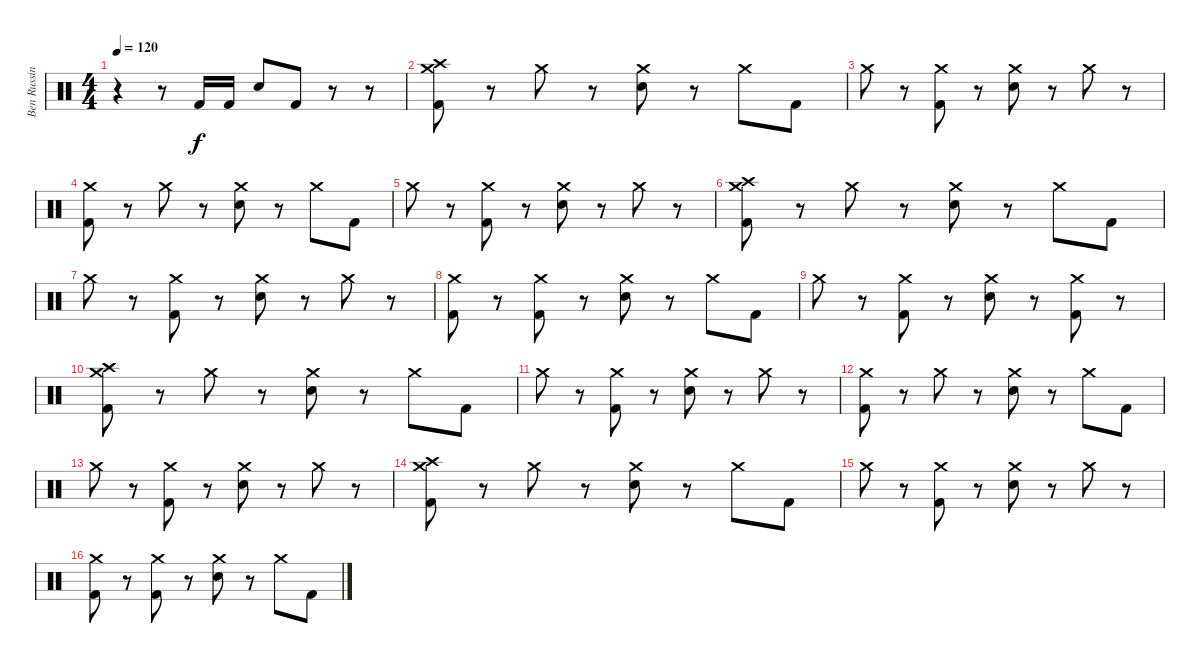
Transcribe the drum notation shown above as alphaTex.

\track ("Ben Russin" "Ben Russin") {instrument percussion}
\staff {score}
\articulation defaults
\ts (4 4)
\tempo 120
\clef neutral
\ks c
r.4{dy f} r.8 "Kick (hit) 2".16 "Kick (hit) 2".16 "Snare (hit) 2".8 "Kick (hit) 2".8 r.8 r.8 |
("Kick (hit) 2" "Crash high (hit)" "Crash medium (hit)").8 r.8 "Crash medium (hit)".8 r.8 ("Snare (hit) 2" "Crash medium (hit)").8 r.8 "Crash medium (hit)".8 "Kick (hit) 2".8 |
"Crash medium (hit)".8 r.8 ("Kick (hit) 2" "Crash medium (hit)").8 r.8 ("Snare (hit) 2" "Crash medium (hit)").8 r.8 "Crash medium (hit)".8 r.8 |
("Kick (hit) 2" "Crash medium (hit)").8 r.8 "Crash medium (hit)".8 r.8 ("Snare (hit) 2" "Crash medium (hit)").8 r.8 "Crash medium (hit)".8 "Kick (hit) 2".8 |
"Crash medium (hit)".8 r.8 ("Kick (hit) 2" "Crash medium (hit)").8 r.8 ("Snare (hit) 2" "Crash medium (hit)").8 r.8 "Crash medium (hit)".8 r.8 |
("Kick (hit) 2" "Crash high (hit)" "Crash medium (hit)").8 r.8 "Crash medium (hit)".8 r.8 ("Snare (hit) 2" "Crash medium (hit)").8 r.8 "Crash medium (hit)".8 "Kick (hit) 2".8 |
"Crash medium (hit)".8 r.8 ("Kick (hit) 2" "Crash medium (hit)").8 r.8 ("Snare (hit) 2" "Crash medium (hit)").8 r.8 "Crash medium (hit)".8 r.8 |
("Kick (hit) 2" "Crash medium (hit)").8 r.8 ("Kick (hit) 2" "Crash medium (hit)").8 r.8 ("Snare (hit) 2" "Crash medium (hit)").8 r.8 "Crash medium (hit)".8 "Kick (hit) 2".8 |
"Crash medium (hit)".8 r.8 ("Kick (hit) 2" "Crash medium (hit)").8 r.8 ("Snare (hit) 2" "Crash medium (hit)").8 r.8 ("Kick (hit) 2" "Crash medium (hit)").8 r.8 |
("Kick (hit) 2" "Crash high (hit)" "Crash medium (hit)").8 r.8 "Crash medium (hit)".8 r.8 ("Snare (hit) 2" "Crash medium (hit)").8 r.8 "Crash medium (hit)".8 "Kick (hit) 2".8 |
"Crash medium (hit)".8 r.8 ("Kick (hit) 2" "Crash medium (hit)").8 r.8 ("Snare (hit) 2" "Crash medium (hit)").8 r.8 "Crash medium (hit)".8 r.8 |
("Kick (hit) 2" "Crash medium (hit)").8 r.8 "Crash medium (hit)".8 r.8 ("Snare (hit) 2" "Crash medium (hit)").8 r.8 "Crash medium (hit)".8 "Kick (hit) 2".8 |
"Crash medium (hit)".8 r.8 ("Kick (hit) 2" "Crash medium (hit)").8 r.8 ("Snare (hit) 2" "Crash medium (hit)").8 r.8 "Crash medium (hit)".8 r.8 |
("Kick (hit) 2" "Crash high (hit)" "Crash medium (hit)").8 r.8 "Crash medium (hit)".8 r.8 ("Snare (hit) 2" "Crash medium (hit)").8 r.8 "Crash medium (hit)".8 "Kick (hit) 2".8 |
"Crash medium (hit)".8 r.8 ("Kick (hit) 2" "Crash medium (hit)").8 r.8 ("Snare (hit) 2" "Crash medium (hit)").8 r.8 "Crash medium (hit)".8 r.8 |
("Kick (hit) 2" "Crash medium (hit)").8 r.8 ("Kick (hit) 2" "Crash medium (hit)").8 r.8 ("Snare (hit) 2" "Crash medium (hit)").8 r.8 "Crash medium (hit)".8 "Kick (hit) 2".8
